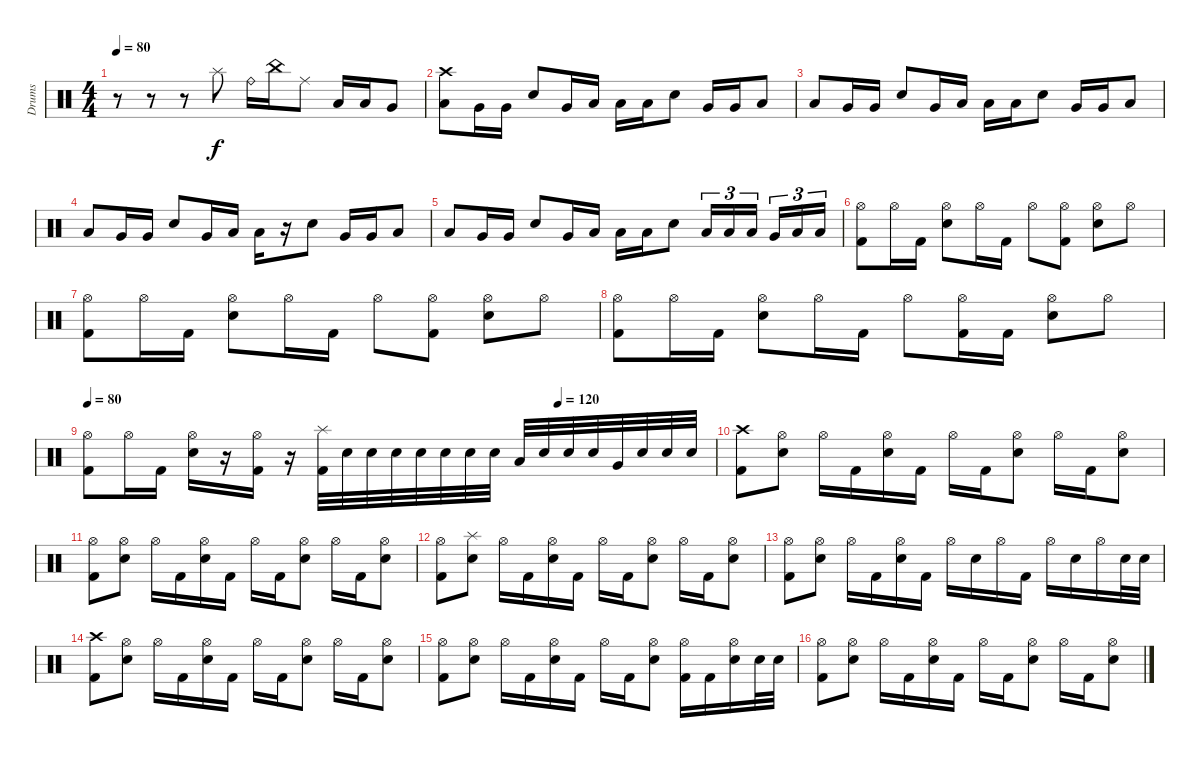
\track ("Drums" "Drums") {instrument percussion}
\staff {score}
\articulation defaults
\ts (4 4)
\tempo 80
\clef neutral
\ks c
r.8{dy f} r.8 r.8 "Splash (hit)".8 "Ride (bell)".16 "China (hit)".16 "Ride (middle)".8 "Low Tom (hit)".16 "Low Tom (hit)".16 "Very Low Tom (hit)".8 |
("Crash high (hit)" "Low Floor Tom (hit)").8 "Very Low Tom (hit)".16 "Very Low Tom (hit)".16 "Electric Snare (hit)".8 "Very Low Tom (hit)".16 "Low Tom (hit)".16 "Low Floor Tom (hit)".16 "Low Floor Tom (hit)".16 "Electric Snare (hit)".8 "Very Low Tom (hit)".16 "Very Low Tom (hit)".16 "Low Floor Tom (hit)".8 |
"Low Floor Tom (hit)".8 "Very Low Tom (hit)".16 "Very Low Tom (hit)".16 "Electric Snare (hit)".8 "Very Low Tom (hit)".16 "Low Tom (hit)".16 "Low Floor Tom (hit)".16 "Low Floor Tom (hit)".16 "Electric Snare (hit)".8 "Very Low Tom (hit)".16 "Very Low Tom (hit)".16 "Low Floor Tom (hit)".8 |
"Low Floor Tom (hit)".8 "Very Low Tom (hit)".16 "Very Low Tom (hit)".16 "Electric Snare (hit)".8 "Very Low Tom (hit)".16 "Low Tom (hit)".16 "Low Floor Tom (hit)".16 r.16 "Electric Snare (hit)".8 "Very Low Tom (hit)".16 "Very Low Tom (hit)".16 "Low Floor Tom (hit)".8 |
"Low Floor Tom (hit)".8 "Very Low Tom (hit)".16 "Very Low Tom (hit)".16 "Electric Snare (hit)".8 "Very Low Tom (hit)".16 "Low Tom (hit)".16 "Low Floor Tom (hit)".16 "Low Floor Tom (hit)".16 "Electric Snare (hit)".8 "Low Tom (hit)".16{tu (3 2)} "Low Tom (hit)".16{tu (3 2)} "Low Tom (hit)".16{tu (3 2) beam splitsecondary} "Very Low Tom (hit)".16{tu (3 2)} "Low Floor Tom (hit)".16{tu (3 2)} "Low Floor Tom (hit)".16{tu (3 2)} |
("Hi-Hat (open)" "Kick (hit) 2").8 "Hi-Hat (open)".16 "Kick (hit) 2".16 ("Hi-Hat (open)" "Electric Snare (hit)").8 "Hi-Hat (open)".16 "Kick (hit) 2".16 "Hi-Hat (open)".8 ("Hi-Hat (open)" "Kick (hit) 2").8 ("Hi-Hat (open)" "Electric Snare (hit)").8 "Hi-Hat (open)".8 |
("Hi-Hat (open)" "Kick (hit) 2").8 "Hi-Hat (open)".16 "Kick (hit) 2".16 ("Hi-Hat (open)" "Electric Snare (hit)").8 "Hi-Hat (open)".16 "Kick (hit) 2".16 "Hi-Hat (open)".8 ("Hi-Hat (open)" "Kick (hit) 2").8 ("Hi-Hat (open)" "Electric Snare (hit)").8 "Hi-Hat (open)".8 |
("Hi-Hat (open)" "Kick (hit) 2").8 "Hi-Hat (open)".16 "Kick (hit) 2".16 ("Hi-Hat (open)" "Electric Snare (hit)").8 "Hi-Hat (open)".16 "Kick (hit) 2".16 "Hi-Hat (open)".8 ("Hi-Hat (open)" "Kick (hit) 2").16 "Kick (hit) 2".16 ("Hi-Hat (open)" "Electric Snare (hit)").8 "Hi-Hat (open)".8 |
\tempo 80
\tempo (120 0.75)
("Hi-Hat (open)" "Kick (hit) 2").8 "Hi-Hat (open)".16 "Kick (hit) 2".16 ("Hi-Hat (open)" "Electric Snare (hit)").16 r.16 ("Hi-Hat (open)" "Kick (hit) 2").16 r.16 ("Splash (hit)" "Kick (hit) 2").32 "Electric Snare (hit)".32 "Electric Snare (hit)".32 "Electric Snare (hit)".32 "Electric Snare (hit)".32 "Electric Snare (hit)".32 "Electric Snare (hit)".32 "Electric Snare (hit)".32 "Low Tom (hit)".32 "Electric Snare (hit)".32 "Electric Snare (hit)".32 "Electric Snare (hit)".32 "Very Low Tom (hit)".32 "Electric Snare (hit)".32 "Electric Snare (hit)".32 "Electric Snare (hit)".32 |
("Crash high (hit)" "Kick (hit) 2").8 ("Hi-Hat (open)" "Electric Snare (hit)").8 "Hi-Hat (open)".16 "Kick (hit) 2".16 ("Hi-Hat (open)" "Electric Snare (hit)").16 "Kick (hit) 2".16 "Hi-Hat (open)".16 "Kick (hit) 2".16 ("Hi-Hat (open)" "Electric Snare (hit)").8 "Hi-Hat (open)".16 "Kick (hit) 2".16 ("Hi-Hat (open)" "Electric Snare (hit)").8 |
("Hi-Hat (open)" "Kick (hit) 2").8 ("Hi-Hat (open)" "Electric Snare (hit)").8 "Hi-Hat (open)".16 "Kick (hit) 2".16 ("Hi-Hat (open)" "Electric Snare (hit)").16 "Kick (hit) 2".16 "Hi-Hat (open)".16 "Kick (hit) 2".16 ("Hi-Hat (open)" "Electric Snare (hit)").8 "Hi-Hat (open)".16 "Kick (hit) 2".16 ("Hi-Hat (open)" "Electric Snare (hit)").8 |
("Hi-Hat (open)" "Kick (hit) 2").8 ("Splash (hit)" "Electric Snare (hit)").8 "Hi-Hat (open)".16 "Kick (hit) 2".16 ("Hi-Hat (open)" "Electric Snare (hit)").16 "Kick (hit) 2".16 "Hi-Hat (open)".16 "Kick (hit) 2".16 ("Hi-Hat (open)" "Electric Snare (hit)").8 "Hi-Hat (open)".16 "Kick (hit) 2".16 ("Hi-Hat (open)" "Electric Snare (hit)").8 |
("Hi-Hat (open)" "Kick (hit) 2").8 ("Hi-Hat (open)" "Electric Snare (hit)").8 "Hi-Hat (open)".16 "Kick (hit) 2".16 ("Hi-Hat (open)" "Electric Snare (hit)").16 "Kick (hit) 2".16 "Hi-Hat (open)".16 "Electric Snare (hit)".16 "Hi-Hat (open)".16 "Kick (hit) 2".16 "Hi-Hat (open)".16 "Electric Snare (hit)".16 "Hi-Hat (open)".16 "Electric Snare (hit)".32 "Electric Snare (hit)".32 |
("Crash high (hit)" "Kick (hit) 2").8 ("Hi-Hat (open)" "Electric Snare (hit)").8 "Hi-Hat (open)".16 "Kick (hit) 2".16 ("Hi-Hat (open)" "Electric Snare (hit)").16 "Kick (hit) 2".16 "Hi-Hat (open)".16 "Kick (hit) 2".16 ("Hi-Hat (open)" "Electric Snare (hit)").8 "Hi-Hat (open)".16 "Kick (hit) 2".16 ("Hi-Hat (open)" "Electric Snare (hit)").8 |
("Hi-Hat (open)" "Kick (hit) 2").8 ("Hi-Hat (open)" "Electric Snare (hit)").8 "Hi-Hat (open)".16 "Kick (hit) 2".16 ("Hi-Hat (open)" "Electric Snare (hit)").16 "Kick (hit) 2".16 "Hi-Hat (open)".16 "Kick (hit) 2".16 ("Hi-Hat (open)" "Electric Snare (hit)").8 ("Hi-Hat (open)" "Kick (hit) 2").16 "Kick (hit) 2".16 ("Hi-Hat (open)" "Electric Snare (hit)").16 "Electric Snare (hit)".32 "Electric Snare (hit)".32 |
("Hi-Hat (open)" "Kick (hit) 2").8 ("Hi-Hat (open)" "Electric Snare (hit)").8 "Hi-Hat (open)".16 "Kick (hit) 2".16 ("Hi-Hat (open)" "Electric Snare (hit)").16 "Kick (hit) 2".16 "Hi-Hat (open)".16 "Kick (hit) 2".16 ("Hi-Hat (open)" "Electric Snare (hit)").8 "Hi-Hat (open)".16 "Kick (hit) 2".16 ("Hi-Hat (open)" "Electric Snare (hit)").8
